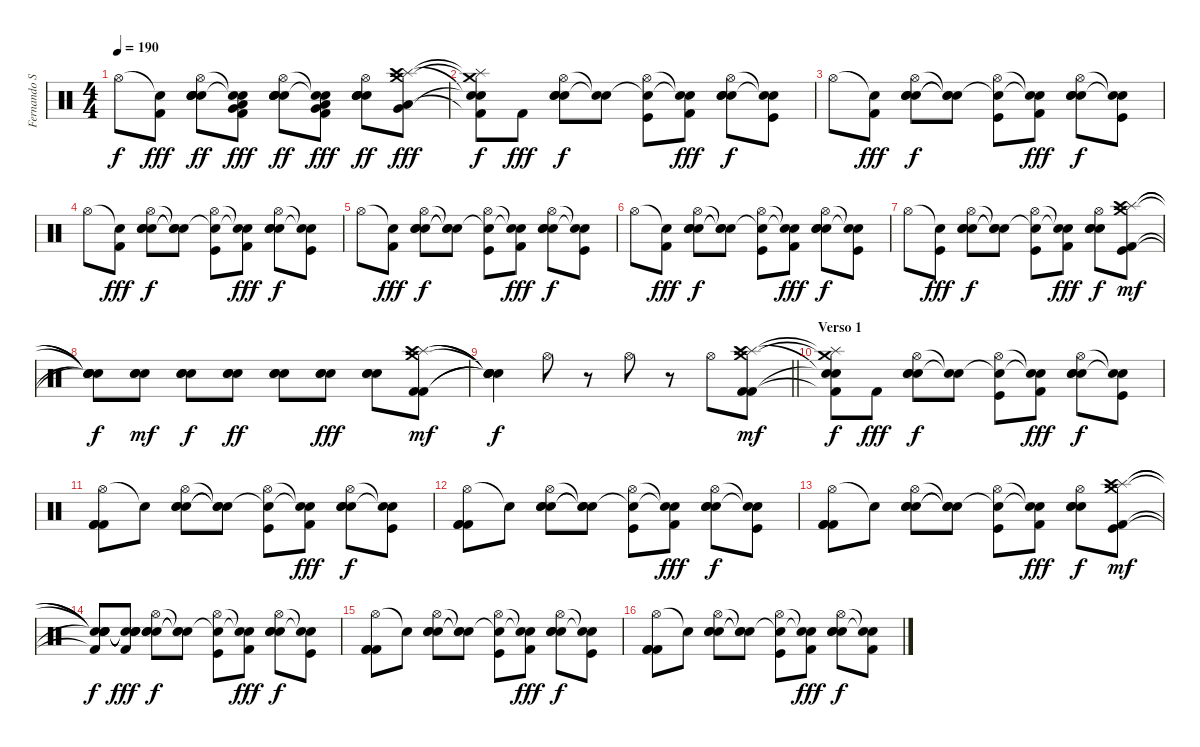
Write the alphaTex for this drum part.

\track ("Fernando Scarcella" "Fernando S") {instrument percussion}
\staff {score}
\articulation defaults
\ts (4 4)
\tempo 190
\clef neutral
\ks c "Hi-Hat (open)".8{dy f}
("Snare (hit)"{t} "Kick (hit) 2").8{dy fff} ("Electric Snare (hit)" "Hi-Hat (open)" "Electric Snare (hit)" "Electric Snare (hit)" "Electric Snare (hit)").8{dy ff} ("Kick (hit) 2" "Snare (hit)"{t} "Snare (hit)"{t} "Very Low Tom (hit)" "Low Tom (hit)").8{dy fff} ("Electric Snare (hit)" "Hi-Hat (open)" "Electric Snare (hit)" "Electric Snare (hit)" "Electric Snare (hit)").8{dy ff} ("Kick (hit) 2" "Snare (hit)"{t} "Snare (hit)"{t} "Very Low Tom (hit)" "Low Tom (hit)").8{dy fff} ("Electric Snare (hit)" "Hi-Hat (open)" "Electric Snare (hit)" "Electric Snare (hit)" "Electric Snare (hit)").8{dy ff} ("Crash medium (hit)" "Splash (hit)" "Crash high (hit)" "Very Low Tom (hit)" "Low Tom (hit)").8{dy fff} |
("Crash medium (hit)"{t} "Splash (hit)"{t} "Snare (hit)"{t} "Snare (hit)"{t} "Kick (hit) 2"{t}).8{dy f} "Kick (hit) 2".8{dy fff} ("Hi-Hat (open)" "Electric Snare (hit)" "Electric Snare (hit)" "Electric Snare (hit)").8{dy f} ("Snare (hit)"{t} "Snare (hit)"{t}).8 ("Hi-Hat (open)" "Snare (hit)"{t} "Kick (hit)").8 ("Snare (hit)"{t} "Snare (hit)"{t} "Kick (hit) 2").8{dy fff} ("Hi-Hat (open)" "Electric Snare (hit)" "Electric Snare (hit)" "Electric Snare (hit)").8{dy f} ("Snare (hit)"{t} "Snare (hit)"{t} "Kick (hit)").8 |
"Hi-Hat (open)".8 ("Snare (hit)"{t} "Kick (hit) 2").8{dy fff} ("Hi-Hat (open)" "Electric Snare (hit)" "Electric Snare (hit)" "Electric Snare (hit)").8{dy f} ("Snare (hit)"{t} "Snare (hit)"{t} "Snare (hit)"{t}).8 ("Hi-Hat (open)" "Snare (hit)"{t} "Kick (hit)").8 ("Snare (hit)"{t} "Snare (hit)"{t} "Kick (hit) 2").8{dy fff} ("Hi-Hat (open)" "Electric Snare (hit)" "Electric Snare (hit)" "Electric Snare (hit)").8{dy f} ("Snare (hit)"{t} "Snare (hit)"{t} "Kick (hit)").8 |
"Hi-Hat (open)".8 ("Snare (hit)"{t} "Kick (hit) 2").8{dy fff} ("Hi-Hat (open)" "Electric Snare (hit)" "Electric Snare (hit)" "Electric Snare (hit)").8{dy f} ("Snare (hit)"{t} "Snare (hit)"{t} "Snare (hit)"{t}).8 ("Hi-Hat (open)" "Snare (hit)"{t} "Kick (hit)").8 ("Snare (hit)"{t} "Snare (hit)"{t} "Kick (hit) 2").8{dy fff} ("Hi-Hat (open)" "Electric Snare (hit)" "Electric Snare (hit)" "Electric Snare (hit)").8{dy f} ("Snare (hit)"{t} "Snare (hit)"{t} "Kick (hit)").8 |
"Hi-Hat (open)".8 ("Snare (hit)"{t} "Kick (hit) 2").8{dy fff} ("Hi-Hat (open)" "Electric Snare (hit)" "Electric Snare (hit)" "Electric Snare (hit)").8{dy f} ("Snare (hit)"{t} "Snare (hit)"{t} "Snare (hit)"{t}).8 ("Hi-Hat (open)" "Snare (hit)"{t} "Kick (hit)").8 ("Snare (hit)"{t} "Snare (hit)"{t} "Kick (hit) 2").8{dy fff} ("Hi-Hat (open)" "Electric Snare (hit)" "Electric Snare (hit)" "Electric Snare (hit)").8{dy f} ("Snare (hit)"{t} "Snare (hit)"{t} "Kick (hit)").8 |
"Hi-Hat (open)".8 ("Snare (hit)"{t} "Kick (hit) 2").8{dy fff} ("Hi-Hat (open)" "Electric Snare (hit)" "Electric Snare (hit)" "Electric Snare (hit)").8{dy f} ("Snare (hit)"{t} "Snare (hit)"{t} "Snare (hit)"{t}).8 ("Hi-Hat (open)" "Snare (hit)"{t} "Kick (hit)").8 ("Snare (hit)"{t} "Snare (hit)"{t} "Kick (hit) 2").8{dy fff} ("Hi-Hat (open)" "Electric Snare (hit)" "Electric Snare (hit)" "Electric Snare (hit)").8{dy f} ("Snare (hit)"{t} "Snare (hit)"{t} "Kick (hit)").8 |
"Hi-Hat (open)".8 ("Snare (hit)"{t} "Kick (hit)").8{dy fff} ("Hi-Hat (open)" "Electric Snare (hit)" "Electric Snare (hit)" "Electric Snare (hit)").8{dy f} ("Snare (hit)"{t} "Snare (hit)"{t} "Snare (hit)"{t}).8 ("Hi-Hat (open)" "Snare (hit)"{t} "Kick (hit)").8 ("Snare (hit)"{t} "Snare (hit)"{t} "Kick (hit) 2").8{dy fff} ("Hi-Hat (open)" "Electric Snare (hit)" "Electric Snare (hit)" "Electric Snare (hit)").8{dy f} ("Crash medium (hit)" "Splash (hit)" "Crash high (hit)" "Kick (hit) 2" "Kick (hit)").8{dy mf} |
("Snare (hit)"{t} "Snare (hit)"{t} "Snare (hit)"{t} "Snare (hit)"{t} "Snare (hit)"{t}).8{dy f} ("Electric Snare (hit)" "Electric Snare (hit)" "Electric Snare (hit)").8{dy mf} ("Electric Snare (hit)" "Electric Snare (hit)" "Electric Snare (hit)").8{dy f} ("Electric Snare (hit)" "Electric Snare (hit)" "Electric Snare (hit)").8{dy ff} ("Electric Snare (hit)" "Electric Snare (hit)" "Electric Snare (hit)").8 ("Electric Snare (hit)" "Electric Snare (hit)" "Electric Snare (hit)").8{dy fff} ("Electric Snare (hit)" "Electric Snare (hit)" "Electric Snare (hit)").8 ("Crash medium (hit)" "Splash (hit)" "Crash high (hit)" "Kick (hit) 2" "Kick (hit) 2").8{dy mf} |
\barLineRight lightlight
("Snare (hit)"{t} "Snare (hit)"{t} "Snare (hit)"{t} "Snare (hit)"{t} "Snare (hit)"{t}).4{dy f} "Hi-Hat (open)".8 r.8 "Hi-Hat (open)".8 r.8 "Hi-Hat (open)".8 ("Crash medium (hit)" "Splash (hit)" "Crash high (hit)" "Kick (hit) 2" "Kick (hit) 2").8{dy mf} |
\section ("" "Verso 1")
("Crash medium (hit)"{t} "Splash (hit)"{t} "Snare (hit)"{t} "Snare (hit)"{t} "Kick (hit) 2"{t}).8{dy f} "Kick (hit) 2".8{dy fff} ("Hi-Hat (open)" "Electric Snare (hit)" "Electric Snare (hit)" "Electric Snare (hit)").8{dy f} ("Snare (hit)"{t} "Snare (hit)"{t}).8 ("Hi-Hat (open)" "Snare (hit)"{t} "Kick (hit)").8 ("Snare (hit)"{t} "Snare (hit)"{t} "Kick (hit) 2").8{dy fff} ("Hi-Hat (open)" "Electric Snare (hit)" "Electric Snare (hit)" "Electric Snare (hit)").8{dy f} ("Snare (hit)"{t} "Snare (hit)"{t} "Kick (hit)").8 |
("Hi-Hat (open)" "Kick (hit) 2" "Kick (hit) 2" "Kick (hit) 2").8 "Snare (hit)"{t}.8 ("Hi-Hat (open)" "Electric Snare (hit)" "Electric Snare (hit)" "Electric Snare (hit)").8 ("Snare (hit)"{t} "Snare (hit)"{t} "Snare (hit)"{t}).8 ("Hi-Hat (open)" "Snare (hit)"{t} "Kick (hit)").8 ("Snare (hit)"{t} "Snare (hit)"{t} "Kick (hit) 2").8{dy fff} ("Hi-Hat (open)" "Electric Snare (hit)" "Electric Snare (hit)" "Electric Snare (hit)").8{dy f} ("Snare (hit)"{t} "Snare (hit)"{t} "Kick (hit)").8 |
("Hi-Hat (open)" "Kick (hit) 2" "Kick (hit) 2" "Kick (hit) 2").8 "Snare (hit)"{t}.8 ("Hi-Hat (open)" "Electric Snare (hit)" "Electric Snare (hit)" "Electric Snare (hit)").8 ("Snare (hit)"{t} "Snare (hit)"{t} "Snare (hit)"{t}).8 ("Hi-Hat (open)" "Snare (hit)"{t} "Kick (hit)").8 ("Snare (hit)"{t} "Snare (hit)"{t} "Kick (hit) 2").8{dy fff} ("Hi-Hat (open)" "Electric Snare (hit)" "Electric Snare (hit)" "Electric Snare (hit)").8{dy f} ("Snare (hit)"{t} "Snare (hit)"{t} "Kick (hit)").8 |
("Hi-Hat (open)" "Kick (hit) 2" "Kick (hit) 2" "Kick (hit) 2").8 "Snare (hit)"{t}.8 ("Hi-Hat (open)" "Electric Snare (hit)" "Electric Snare (hit)" "Electric Snare (hit)").8 ("Snare (hit)"{t} "Snare (hit)"{t} "Snare (hit)"{t}).8 ("Hi-Hat (open)" "Snare (hit)"{t} "Kick (hit)").8 ("Snare (hit)"{t} "Snare (hit)"{t} "Kick (hit) 2").8{dy fff} ("Hi-Hat (open)" "Electric Snare (hit)" "Electric Snare (hit)" "Electric Snare (hit)").8{dy f} ("Crash medium (hit)" "Splash (hit)" "Crash high (hit)" "Kick (hit) 2" "Kick (hit)").8{dy mf} |
("Snare (hit)"{t} "Snare (hit)"{t} "Snare (hit)"{t} "Snare (hit)"{t} "Kick (hit) 2"{t}).8{dy f} ("Snare (hit)"{t} "Snare (hit)"{t} "Snare (hit)"{t} "Snare (hit)"{t} "Kick (hit) 2").8{dy fff} ("Hi-Hat (open)" "Electric Snare (hit)" "Electric Snare (hit)" "Electric Snare (hit)").8{dy f} ("Snare (hit)"{t} "Snare (hit)"{t} "Snare (hit)"{t}).8 ("Hi-Hat (open)" "Snare (hit)"{t} "Kick (hit)").8 ("Snare (hit)"{t} "Snare (hit)"{t} "Kick (hit) 2").8{dy fff} ("Hi-Hat (open)" "Electric Snare (hit)" "Electric Snare (hit)" "Electric Snare (hit)").8{dy f} ("Snare (hit)"{t} "Snare (hit)"{t} "Kick (hit)").8 |
("Hi-Hat (open)" "Kick (hit) 2" "Kick (hit) 2" "Kick (hit) 2").8 "Snare (hit)"{t}.8 ("Hi-Hat (open)" "Electric Snare (hit)" "Electric Snare (hit)" "Electric Snare (hit)").8 ("Snare (hit)"{t} "Snare (hit)"{t} "Snare (hit)"{t}).8 ("Hi-Hat (open)" "Snare (hit)"{t} "Kick (hit)").8 ("Snare (hit)"{t} "Snare (hit)"{t} "Kick (hit) 2").8{dy fff} ("Hi-Hat (open)" "Electric Snare (hit)" "Electric Snare (hit)" "Electric Snare (hit)").8{dy f} ("Snare (hit)"{t} "Snare (hit)"{t} "Kick (hit)").8 |
("Hi-Hat (open)" "Kick (hit) 2" "Kick (hit) 2" "Kick (hit) 2").8 "Snare (hit)"{t}.8 ("Hi-Hat (open)" "Electric Snare (hit)" "Electric Snare (hit)" "Electric Snare (hit)").8 ("Snare (hit)"{t} "Snare (hit)"{t} "Snare (hit)"{t}).8 ("Hi-Hat (open)" "Snare (hit)"{t} "Kick (hit)").8 ("Snare (hit)"{t} "Snare (hit)"{t} "Kick (hit) 2").8{dy fff} ("Hi-Hat (open)" "Electric Snare (hit)" "Electric Snare (hit)" "Electric Snare (hit)").8{dy f} ("Snare (hit)"{t} "Snare (hit)"{t} "Kick (hit) 2").8
